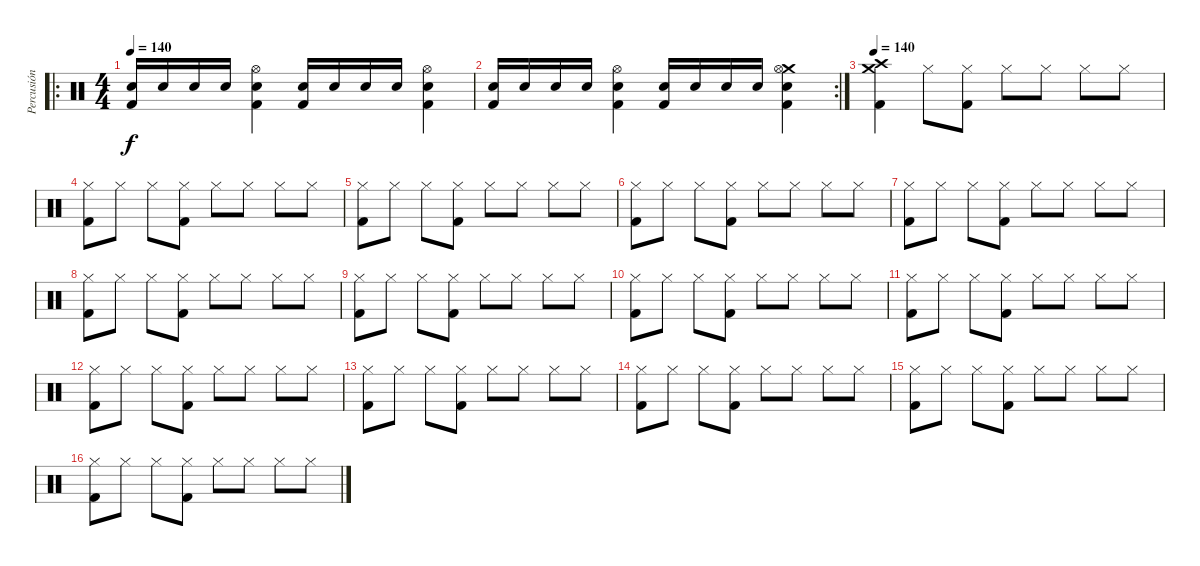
\track ("Percusión" "Percusión") {instrument percussion}
\staff {score}
\articulation defaults
\ro
\ts (4 4)
\tempo 140
\tempo 180
\tempo 140
\clef neutral
\ks c
("Kick (hit) 2" "Electric Snare (hit)").16{dy f} "Electric Snare (hit)".16 "Electric Snare (hit)".16 "Electric Snare (hit)".16 ("Kick (hit) 2" "Electric Snare (hit)" "Hi-Hat (open)").4 ("Kick (hit) 2" "Electric Snare (hit)").16 "Electric Snare (hit)".16 "Electric Snare (hit)".16 "Electric Snare (hit)".16 ("Kick (hit) 2" "Electric Snare (hit)" "Hi-Hat (open)").4 |
\rc 2
("Kick (hit) 2" "Electric Snare (hit)").16 "Electric Snare (hit)".16 "Electric Snare (hit)".16 "Electric Snare (hit)".16 ("Kick (hit) 2" "Electric Snare (hit)" "Hi-Hat (open)").4 ("Kick (hit) 2" "Electric Snare (hit)").16 "Electric Snare (hit)".16 "Electric Snare (hit)".16 "Electric Snare (hit)".16 ("Crash medium (hit)" "Kick (hit) 2" "Electric Snare (hit)" "Hi-Hat (open)").4 |
\tempo 140
("Crash high (hit)" "Crash medium (hit)" "Kick (hit) 2").4 "Hi-Hat (closed)".8 ("Hi-Hat (closed)" "Kick (hit) 2").8 "Hi-Hat (closed)".8 "Hi-Hat (closed)".8 "Hi-Hat (closed)".8 "Hi-Hat (closed)".8 |
("Hi-Hat (closed)" "Kick (hit) 2").8 "Hi-Hat (closed)".8 "Hi-Hat (closed)".8 ("Hi-Hat (closed)" "Kick (hit) 2").8 "Hi-Hat (closed)".8 "Hi-Hat (closed)".8 "Hi-Hat (closed)".8 "Hi-Hat (closed)".8 |
("Hi-Hat (closed)" "Kick (hit) 2").8 "Hi-Hat (closed)".8 "Hi-Hat (closed)".8 ("Hi-Hat (closed)" "Kick (hit) 2").8 "Hi-Hat (closed)".8 "Hi-Hat (closed)".8 "Hi-Hat (closed)".8 "Hi-Hat (closed)".8 |
("Hi-Hat (closed)" "Kick (hit) 2").8 "Hi-Hat (closed)".8 "Hi-Hat (closed)".8 ("Hi-Hat (closed)" "Kick (hit) 2").8 "Hi-Hat (closed)".8 "Hi-Hat (closed)".8 "Hi-Hat (closed)".8 "Hi-Hat (closed)".8 |
("Hi-Hat (closed)" "Kick (hit) 2").8 "Hi-Hat (closed)".8 "Hi-Hat (closed)".8 ("Hi-Hat (closed)" "Kick (hit) 2").8 "Hi-Hat (closed)".8 "Hi-Hat (closed)".8 "Hi-Hat (closed)".8 "Hi-Hat (closed)".8 |
("Hi-Hat (closed)" "Kick (hit) 2").8 "Hi-Hat (closed)".8 "Hi-Hat (closed)".8 ("Hi-Hat (closed)" "Kick (hit) 2").8 "Hi-Hat (closed)".8 "Hi-Hat (closed)".8 "Hi-Hat (closed)".8 "Hi-Hat (closed)".8 |
("Hi-Hat (closed)" "Kick (hit) 2").8 "Hi-Hat (closed)".8 "Hi-Hat (closed)".8 ("Hi-Hat (closed)" "Kick (hit) 2").8 "Hi-Hat (closed)".8 "Hi-Hat (closed)".8 "Hi-Hat (closed)".8 "Hi-Hat (closed)".8 |
("Hi-Hat (closed)" "Kick (hit) 2").8 "Hi-Hat (closed)".8 "Hi-Hat (closed)".8 ("Hi-Hat (closed)" "Kick (hit) 2").8 "Hi-Hat (closed)".8 "Hi-Hat (closed)".8 "Hi-Hat (closed)".8 "Hi-Hat (closed)".8 |
("Hi-Hat (closed)" "Kick (hit) 2").8 "Hi-Hat (closed)".8 "Hi-Hat (closed)".8 ("Hi-Hat (closed)" "Kick (hit) 2").8 "Hi-Hat (closed)".8 "Hi-Hat (closed)".8 "Hi-Hat (closed)".8 "Hi-Hat (closed)".8 |
("Hi-Hat (closed)" "Kick (hit) 2").8 "Hi-Hat (closed)".8 "Hi-Hat (closed)".8 ("Hi-Hat (closed)" "Kick (hit) 2").8 "Hi-Hat (closed)".8 "Hi-Hat (closed)".8 "Hi-Hat (closed)".8 "Hi-Hat (closed)".8 |
("Hi-Hat (closed)" "Kick (hit) 2").8 "Hi-Hat (closed)".8 "Hi-Hat (closed)".8 ("Hi-Hat (closed)" "Kick (hit) 2").8 "Hi-Hat (closed)".8 "Hi-Hat (closed)".8 "Hi-Hat (closed)".8 "Hi-Hat (closed)".8 |
("Hi-Hat (closed)" "Kick (hit) 2").8 "Hi-Hat (closed)".8 "Hi-Hat (closed)".8 ("Hi-Hat (closed)" "Kick (hit) 2").8 "Hi-Hat (closed)".8 "Hi-Hat (closed)".8 "Hi-Hat (closed)".8 "Hi-Hat (closed)".8 |
("Hi-Hat (closed)" "Kick (hit) 2").8 "Hi-Hat (closed)".8 "Hi-Hat (closed)".8 ("Hi-Hat (closed)" "Kick (hit) 2").8 "Hi-Hat (closed)".8 "Hi-Hat (closed)".8 "Hi-Hat (closed)".8 "Hi-Hat (closed)".8 |
("Hi-Hat (closed)" "Kick (hit) 2").8 "Hi-Hat (closed)".8 "Hi-Hat (closed)".8 ("Hi-Hat (closed)" "Kick (hit) 2").8 "Hi-Hat (closed)".8 "Hi-Hat (closed)".8 "Hi-Hat (closed)".8 "Hi-Hat (closed)".8
